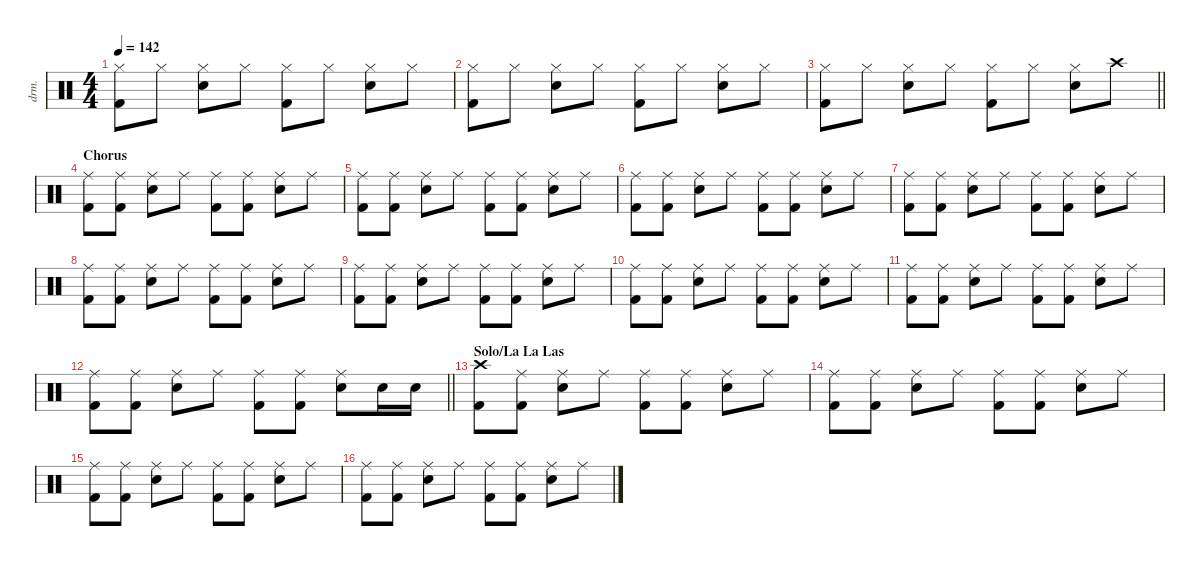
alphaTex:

\defaultSystemsLayout 4
\hideDynamics
\bracketExtendMode nobrackets
\otherSystemsTrackNameOrientation horizontal
\track ("Drums" "drm.") {defaultSystemsLayout 4 instrument percussion}
\staff {score}
\articulation defaults
\ts (4 4)
\tempo 142
\clef neutral
\ks c
("Hi-Hat (closed)" "Kick (hit) 2").8{dy f beam Down} "Hi-Hat (closed)".8{beam Down} ("Hi-Hat (closed)" "Snare (hit) 2").8{beam Down} "Hi-Hat (closed)".8{beam Down} ("Hi-Hat (closed)" "Kick (hit) 2").8{beam Down} "Hi-Hat (closed)".8{beam Down} ("Hi-Hat (closed)" "Snare (hit) 2").8{beam Down} "Hi-Hat (closed)".8{beam Down} |
("Hi-Hat (closed)" "Kick (hit) 2").8{beam Down} "Hi-Hat (closed)".8{beam Down} ("Hi-Hat (closed)" "Snare (hit) 2").8{beam Down} "Hi-Hat (closed)".8{beam Down} ("Hi-Hat (closed)" "Kick (hit) 2").8{beam Down} "Hi-Hat (closed)".8{beam Down} ("Hi-Hat (closed)" "Snare (hit) 2").8{beam Down} "Hi-Hat (closed)".8{beam Down} |
\barLineRight lightlight
("Hi-Hat (closed)" "Kick (hit) 2").8{beam Down} "Hi-Hat (closed)".8{beam Down} ("Hi-Hat (closed)" "Snare (hit) 2").8{beam Down} "Hi-Hat (closed)".8{beam Down} ("Hi-Hat (closed)" "Kick (hit) 2").8{beam Down} "Hi-Hat (closed)".8{beam Down} ("Hi-Hat (closed)" "Snare (hit) 2").8{beam Down} "Crash high (hit)".8{beam Down} |
\section ("" "Chorus")
("Ride (middle)" "Kick (hit) 2").8{beam Down} ("Ride (middle)" "Kick (hit) 2").8{beam Down} ("Ride (middle)" "Snare (hit) 2").8{beam Down} "Ride (middle)".8{beam Down} ("Ride (middle)" "Kick (hit) 2").8{beam Down} ("Ride (middle)" "Kick (hit) 2").8{beam Down} ("Ride (middle)" "Snare (hit) 2").8{beam Down} "Ride (middle)".8{beam Down} |
("Ride (middle)" "Kick (hit) 2").8{beam Down} ("Ride (middle)" "Kick (hit) 2").8{beam Down} ("Ride (middle)" "Snare (hit) 2").8{beam Down} "Ride (middle)".8{beam Down} ("Ride (middle)" "Kick (hit) 2").8{beam Down} ("Ride (middle)" "Kick (hit) 2").8{beam Down} ("Ride (middle)" "Snare (hit) 2").8{beam Down} "Ride (middle)".8{beam Down} |
("Ride (middle)" "Kick (hit) 2").8{beam Down} ("Ride (middle)" "Kick (hit) 2").8{beam Down} ("Ride (middle)" "Snare (hit) 2").8{beam Down} "Ride (middle)".8{beam Down} ("Ride (middle)" "Kick (hit) 2").8{beam Down} ("Ride (middle)" "Kick (hit) 2").8{beam Down} ("Ride (middle)" "Snare (hit) 2").8{beam Down} "Ride (middle)".8{beam Down} |
("Ride (middle)" "Kick (hit) 2").8{beam Down} ("Ride (middle)" "Kick (hit) 2").8{beam Down} ("Ride (middle)" "Snare (hit) 2").8{beam Down} "Ride (middle)".8{beam Down} ("Ride (middle)" "Kick (hit) 2").8{beam Down} ("Ride (middle)" "Kick (hit) 2").8{beam Down} ("Ride (middle)" "Snare (hit) 2").8{beam Down} "Ride (middle)".8{beam Down} |
("Ride (middle)" "Kick (hit) 2").8{beam Down} ("Ride (middle)" "Kick (hit) 2").8{beam Down} ("Ride (middle)" "Snare (hit) 2").8{beam Down} "Ride (middle)".8{beam Down} ("Ride (middle)" "Kick (hit) 2").8{beam Down} ("Ride (middle)" "Kick (hit) 2").8{beam Down} ("Ride (middle)" "Snare (hit) 2").8{beam Down} "Ride (middle)".8{beam Down} |
("Ride (middle)" "Kick (hit) 2").8{beam Down} ("Ride (middle)" "Kick (hit) 2").8{beam Down} ("Ride (middle)" "Snare (hit) 2").8{beam Down} "Ride (middle)".8{beam Down} ("Ride (middle)" "Kick (hit) 2").8{beam Down} ("Ride (middle)" "Kick (hit) 2").8{beam Down} ("Ride (middle)" "Snare (hit) 2").8{beam Down} "Ride (middle)".8{beam Down} |
("Ride (middle)" "Kick (hit) 2").8{beam Down} ("Ride (middle)" "Kick (hit) 2").8{beam Down} ("Ride (middle)" "Snare (hit) 2").8{beam Down} "Ride (middle)".8{beam Down} ("Ride (middle)" "Kick (hit) 2").8{beam Down} ("Ride (middle)" "Kick (hit) 2").8{beam Down} ("Ride (middle)" "Snare (hit) 2").8{beam Down} "Ride (middle)".8{beam Down} |
("Ride (middle)" "Kick (hit) 2").8{beam Down} ("Ride (middle)" "Kick (hit) 2").8{beam Down} ("Ride (middle)" "Snare (hit) 2").8{beam Down} "Ride (middle)".8{beam Down} ("Ride (middle)" "Kick (hit) 2").8{beam Down} ("Ride (middle)" "Kick (hit) 2").8{beam Down} ("Ride (middle)" "Snare (hit) 2").8{beam Down} "Ride (middle)".8{beam Down} |
\barLineRight lightlight
("Ride (middle)" "Kick (hit) 2").8{beam Down} ("Ride (middle)" "Kick (hit) 2").8{beam Down} ("Ride (middle)" "Snare (hit) 2").8{beam Down} "Ride (middle)".8{beam Down} ("Ride (middle)" "Kick (hit) 2").8{beam Down} ("Ride (middle)" "Kick (hit) 2").8{beam Down} ("Ride (middle)" "Snare (hit) 2").8{beam Down} "Snare (hit) 2".16{beam Down} "Snare (hit) 2".16{beam Down} |
\section ("" "Solo/La La Las")
("Crash high (hit)" "Kick (hit) 2").8{beam Down} ("Ride (middle)" "Kick (hit) 2").8{beam Down} ("Ride (middle)" "Snare (hit) 2").8{beam Down} "Ride (middle)".8{beam Down} ("Ride (middle)" "Kick (hit) 2").8{beam Down} ("Ride (middle)" "Kick (hit) 2").8{beam Down} ("Ride (middle)" "Snare (hit) 2").8{beam Down} "Ride (middle)".8{beam Down} |
("Ride (middle)" "Kick (hit) 2").8{beam Down} ("Ride (middle)" "Kick (hit) 2").8{beam Down} ("Ride (middle)" "Snare (hit) 2").8{beam Down} "Ride (middle)".8{beam Down} ("Ride (middle)" "Kick (hit) 2").8{beam Down} ("Ride (middle)" "Kick (hit) 2").8{beam Down} ("Ride (middle)" "Snare (hit) 2").8{beam Down} "Ride (middle)".8{beam Down} |
("Ride (middle)" "Kick (hit) 2").8{beam Down} ("Ride (middle)" "Kick (hit) 2").8{beam Down} ("Ride (middle)" "Snare (hit) 2").8{beam Down} "Ride (middle)".8{beam Down} ("Ride (middle)" "Kick (hit) 2").8{beam Down} ("Ride (middle)" "Kick (hit) 2").8{beam Down} ("Ride (middle)" "Snare (hit) 2").8{beam Down} "Ride (middle)".8{beam Down} |
("Ride (middle)" "Kick (hit) 2").8{beam Down} ("Ride (middle)" "Kick (hit) 2").8{beam Down} ("Ride (middle)" "Snare (hit) 2").8{beam Down} "Ride (middle)".8{beam Down} ("Ride (middle)" "Kick (hit) 2").8{beam Down} ("Ride (middle)" "Kick (hit) 2").8{beam Down} ("Ride (middle)" "Snare (hit) 2").8{beam Down} "Ride (middle)".8{beam Down}
